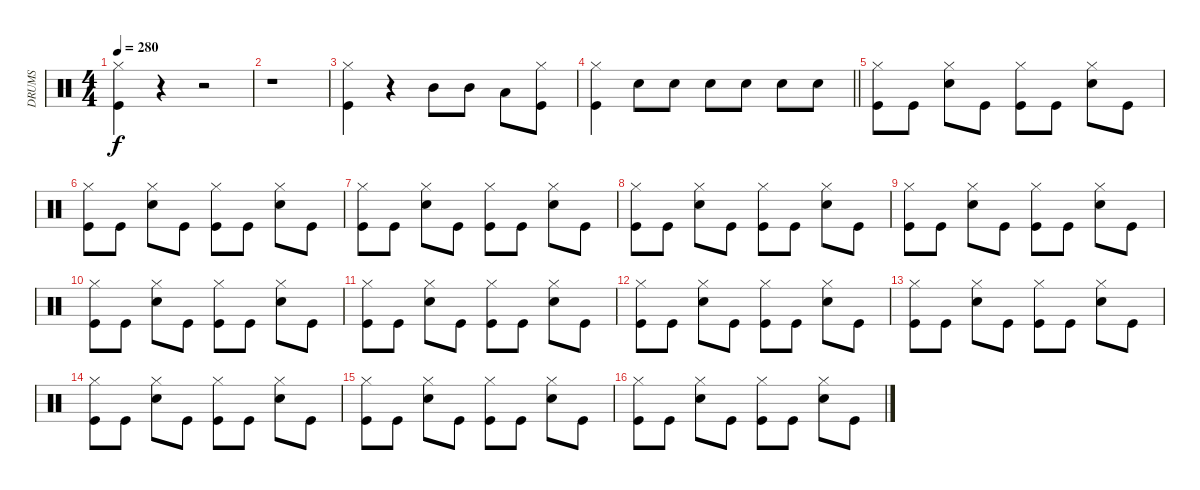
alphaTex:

\track ("DRUMS" "DRUMS") {instrument percussion}
\staff {score}
\articulation defaults
\ts (4 4)
\tempo 280
\clef neutral
\ks c
("Hi-Hat (closed)" "Kick (hit)").4{dy f} r.4 r.2 |
r.1 |
("Hi-Hat (closed)" "Kick (hit)").4 r.4 "Mid Tom (hit)".8 "Mid Tom (hit)".8 "Low Tom (hit)".8 ("Hi-Hat (closed)" "Kick (hit)").8 |
\barLineRight lightlight
("Hi-Hat (closed)" "Kick (hit)").4 "Snare (hit) 2".8 "Snare (hit) 2".8 "Snare (hit) 2".8 "Snare (hit) 2".8 "Snare (hit) 2".8 "Snare (hit) 2".8 |
("Hi-Hat (closed)" "Kick (hit)").8 "Kick (hit)".8 ("Hi-Hat (closed)" "Snare (hit) 2").8 "Kick (hit)".8 ("Hi-Hat (closed)" "Kick (hit)").8 "Kick (hit)".8 ("Hi-Hat (closed)" "Snare (hit) 2").8 "Kick (hit)".8 |
("Hi-Hat (closed)" "Kick (hit)").8 "Kick (hit)".8 ("Hi-Hat (closed)" "Snare (hit) 2").8 "Kick (hit)".8 ("Hi-Hat (closed)" "Kick (hit)").8 "Kick (hit)".8 ("Hi-Hat (closed)" "Snare (hit) 2").8 "Kick (hit)".8 |
("Hi-Hat (closed)" "Kick (hit)").8 "Kick (hit)".8 ("Hi-Hat (closed)" "Snare (hit) 2").8 "Kick (hit)".8 ("Hi-Hat (closed)" "Kick (hit)").8 "Kick (hit)".8 ("Hi-Hat (closed)" "Snare (hit) 2").8 "Kick (hit)".8 |
("Hi-Hat (closed)" "Kick (hit)").8 "Kick (hit)".8 ("Hi-Hat (closed)" "Snare (hit) 2").8 "Kick (hit)".8 ("Hi-Hat (closed)" "Kick (hit)").8 "Kick (hit)".8 ("Hi-Hat (closed)" "Snare (hit) 2").8 "Kick (hit)".8 |
("Hi-Hat (closed)" "Kick (hit)").8 "Kick (hit)".8 ("Hi-Hat (closed)" "Snare (hit) 2").8 "Kick (hit)".8 ("Hi-Hat (closed)" "Kick (hit)").8 "Kick (hit)".8 ("Hi-Hat (closed)" "Snare (hit) 2").8 "Kick (hit)".8 |
("Hi-Hat (closed)" "Kick (hit)").8 "Kick (hit)".8 ("Hi-Hat (closed)" "Snare (hit) 2").8 "Kick (hit)".8 ("Hi-Hat (closed)" "Kick (hit)").8 "Kick (hit)".8 ("Hi-Hat (closed)" "Snare (hit) 2").8 "Kick (hit)".8 |
("Hi-Hat (closed)" "Kick (hit)").8 "Kick (hit)".8 ("Hi-Hat (closed)" "Snare (hit) 2").8 "Kick (hit)".8 ("Hi-Hat (closed)" "Kick (hit)").8 "Kick (hit)".8 ("Hi-Hat (closed)" "Snare (hit) 2").8 "Kick (hit)".8 |
("Hi-Hat (closed)" "Kick (hit)").8 "Kick (hit)".8 ("Hi-Hat (closed)" "Snare (hit) 2").8 "Kick (hit)".8 ("Hi-Hat (closed)" "Kick (hit)").8 "Kick (hit)".8 ("Hi-Hat (closed)" "Snare (hit) 2").8 "Kick (hit)".8 |
("Hi-Hat (closed)" "Kick (hit)").8 "Kick (hit)".8 ("Hi-Hat (closed)" "Snare (hit) 2").8 "Kick (hit)".8 ("Hi-Hat (closed)" "Kick (hit)").8 "Kick (hit)".8 ("Hi-Hat (closed)" "Snare (hit) 2").8 "Kick (hit)".8 |
("Hi-Hat (closed)" "Kick (hit)").8 "Kick (hit)".8 ("Hi-Hat (closed)" "Snare (hit) 2").8 "Kick (hit)".8 ("Hi-Hat (closed)" "Kick (hit)").8 "Kick (hit)".8 ("Hi-Hat (closed)" "Snare (hit) 2").8 "Kick (hit)".8 |
("Hi-Hat (closed)" "Kick (hit)").8 "Kick (hit)".8 ("Hi-Hat (closed)" "Snare (hit) 2").8 "Kick (hit)".8 ("Hi-Hat (closed)" "Kick (hit)").8 "Kick (hit)".8 ("Hi-Hat (closed)" "Snare (hit) 2").8 "Kick (hit)".8 |
("Hi-Hat (closed)" "Kick (hit)").8 "Kick (hit)".8 ("Hi-Hat (closed)" "Snare (hit) 2").8 "Kick (hit)".8 ("Hi-Hat (closed)" "Kick (hit)").8 "Kick (hit)".8 ("Hi-Hat (closed)" "Snare (hit) 2").8 "Kick (hit)".8
